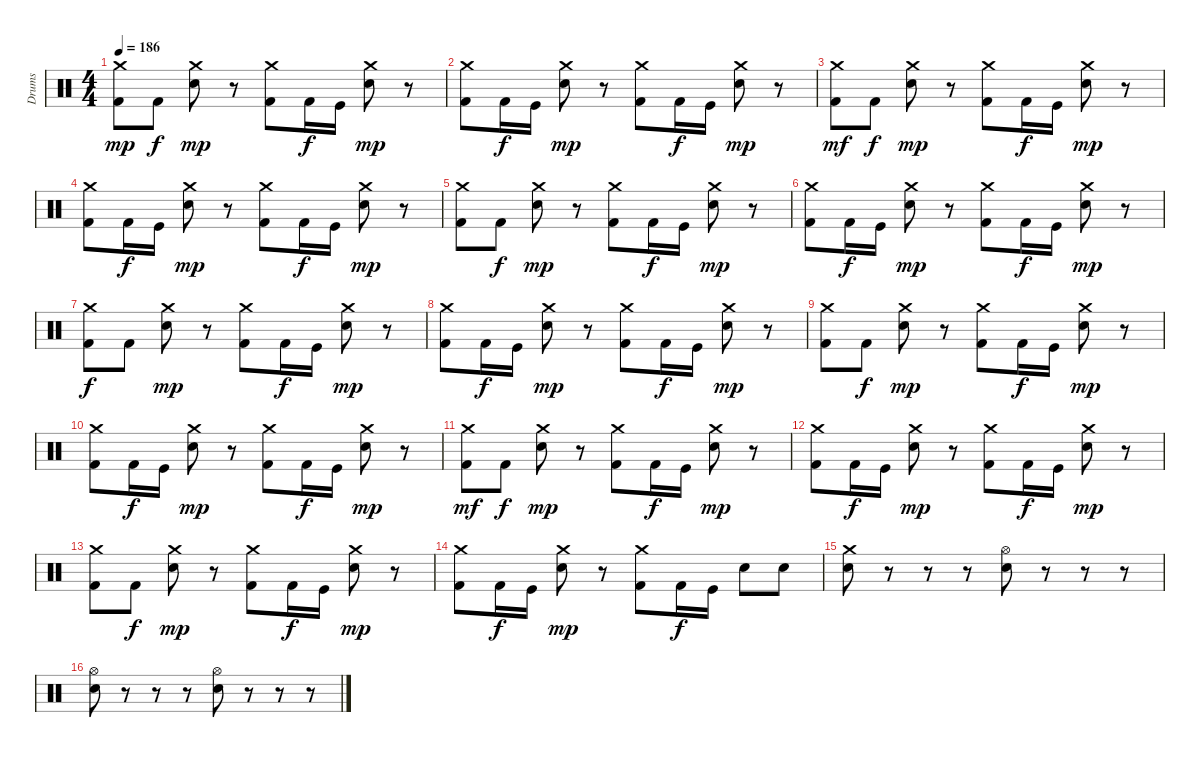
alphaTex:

\track ("Drums" "Drums") {instrument percussion}
\staff {score}
\articulation defaults
\ts (4 4)
\tempo 186
\clef neutral
\ks c
("Crash medium (hit)" "Kick (hit) 2").8{dy mp} "Kick (hit) 2".8{dy f} ("Crash medium (hit)" "Snare (hit) 2").8{dy mp} r.8 ("Crash medium (hit)" "Kick (hit) 2").8 "Kick (hit) 2".16{dy f} "Kick (hit)".16 ("Crash medium (hit)" "Snare (hit) 2").8{dy mp} r.8 |
("Crash medium (hit)" "Kick (hit) 2").8 "Kick (hit) 2".16{dy f} "Kick (hit)".16 ("Crash medium (hit)" "Snare (hit) 2").8{dy mp} r.8 ("Crash medium (hit)" "Kick (hit) 2").8 "Kick (hit) 2".16{dy f} "Kick (hit)".16 ("Crash medium (hit)" "Snare (hit) 2").8{dy mp} r.8 |
("Crash medium (hit)" "Kick (hit) 2").8{dy mf} "Kick (hit) 2".8{dy f} ("Crash medium (hit)" "Snare (hit) 2").8{dy mp} r.8 ("Crash medium (hit)" "Kick (hit) 2").8 "Kick (hit) 2".16{dy f} "Kick (hit)".16 ("Crash medium (hit)" "Snare (hit) 2").8{dy mp} r.8 |
("Crash medium (hit)" "Kick (hit) 2").8 "Kick (hit) 2".16{dy f} "Kick (hit)".16 ("Crash medium (hit)" "Snare (hit) 2").8{dy mp} r.8 ("Crash medium (hit)" "Kick (hit) 2").8 "Kick (hit) 2".16{dy f} "Kick (hit)".16 ("Crash medium (hit)" "Snare (hit) 2").8{dy mp} r.8 |
("Crash medium (hit)" "Kick (hit) 2").8 "Kick (hit) 2".8{dy f} ("Crash medium (hit)" "Snare (hit) 2").8{dy mp} r.8 ("Crash medium (hit)" "Kick (hit) 2").8 "Kick (hit) 2".16{dy f} "Kick (hit)".16 ("Crash medium (hit)" "Snare (hit) 2").8{dy mp} r.8 |
("Crash medium (hit)" "Kick (hit) 2").8 "Kick (hit) 2".16{dy f} "Kick (hit)".16 ("Crash medium (hit)" "Snare (hit) 2").8{dy mp} r.8 ("Crash medium (hit)" "Kick (hit) 2").8 "Kick (hit) 2".16{dy f} "Kick (hit)".16 ("Crash medium (hit)" "Snare (hit) 2").8{dy mp} r.8 |
("Crash medium (hit)" "Kick (hit) 2").8{dy f} "Kick (hit) 2".8 ("Crash medium (hit)" "Snare (hit) 2").8{dy mp} r.8 ("Crash medium (hit)" "Kick (hit) 2").8 "Kick (hit) 2".16{dy f} "Kick (hit)".16 ("Crash medium (hit)" "Snare (hit) 2").8{dy mp} r.8 |
("Crash medium (hit)" "Kick (hit) 2").8 "Kick (hit) 2".16{dy f} "Kick (hit)".16 ("Crash medium (hit)" "Snare (hit) 2").8{dy mp} r.8 ("Crash medium (hit)" "Kick (hit) 2").8 "Kick (hit) 2".16{dy f} "Kick (hit)".16 ("Crash medium (hit)" "Snare (hit) 2").8{dy mp} r.8 |
("Crash medium (hit)" "Kick (hit) 2").8 "Kick (hit) 2".8{dy f} ("Crash medium (hit)" "Snare (hit) 2").8{dy mp} r.8 ("Crash medium (hit)" "Kick (hit) 2").8 "Kick (hit) 2".16{dy f} "Kick (hit)".16 ("Crash medium (hit)" "Snare (hit) 2").8{dy mp} r.8 |
("Crash medium (hit)" "Kick (hit) 2").8 "Kick (hit) 2".16{dy f} "Kick (hit)".16 ("Crash medium (hit)" "Snare (hit) 2").8{dy mp} r.8 ("Crash medium (hit)" "Kick (hit) 2").8 "Kick (hit) 2".16{dy f} "Kick (hit)".16 ("Crash medium (hit)" "Snare (hit) 2").8{dy mp} r.8 |
("Crash medium (hit)" "Kick (hit) 2").8{dy mf} "Kick (hit) 2".8{dy f} ("Crash medium (hit)" "Snare (hit) 2").8{dy mp} r.8 ("Crash medium (hit)" "Kick (hit) 2").8 "Kick (hit) 2".16{dy f} "Kick (hit)".16 ("Crash medium (hit)" "Snare (hit) 2").8{dy mp} r.8 |
("Crash medium (hit)" "Kick (hit) 2").8 "Kick (hit) 2".16{dy f} "Kick (hit)".16 ("Crash medium (hit)" "Snare (hit) 2").8{dy mp} r.8 ("Crash medium (hit)" "Kick (hit) 2").8 "Kick (hit) 2".16{dy f} "Kick (hit)".16 ("Crash medium (hit)" "Snare (hit) 2").8{dy mp} r.8 |
("Crash medium (hit)" "Kick (hit) 2").8 "Kick (hit) 2".8{dy f} ("Crash medium (hit)" "Snare (hit) 2").8{dy mp} r.8 ("Crash medium (hit)" "Kick (hit) 2").8 "Kick (hit) 2".16{dy f} "Kick (hit)".16 ("Crash medium (hit)" "Snare (hit) 2").8{dy mp} r.8 |
("Crash medium (hit)" "Kick (hit) 2").8 "Kick (hit) 2".16{dy f} "Kick (hit)".16 ("Crash medium (hit)" "Snare (hit) 2").8{dy mp} r.8 ("Crash medium (hit)" "Kick (hit) 2").8 "Kick (hit) 2".16{dy f} "Kick (hit)".16 "Snare (hit) 2".8 "Snare (hit) 2".8 |
("Crash medium (hit)" "Snare (hit) 2").8 r.8 r.8 r.8 ("Hi-Hat (open)" "Snare (hit) 2").8 r.8 r.8 r.8 |
("Hi-Hat (open)" "Snare (hit) 2").8 r.8 r.8 r.8 ("Hi-Hat (open)" "Snare (hit) 2").8 r.8 r.8 r.8
